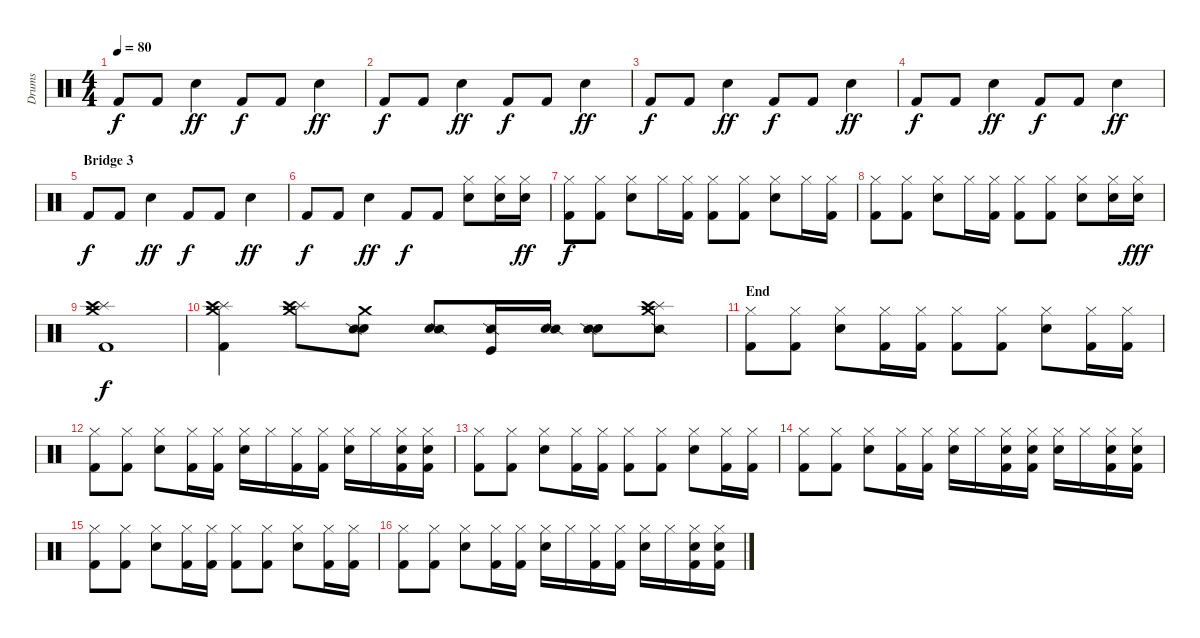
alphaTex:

\track ("Drums" "Drums") {instrument percussion}
\staff {score}
\articulation defaults
\ts (4 4)
\tempo 80
\clef neutral
\ks c "Kick (hit) 2".8{dy f} "Kick (hit) 2".8 "Electric Snare (hit)".4{dy ff} "Kick (hit) 2".8{dy f} "Kick (hit) 2".8 "Electric Snare (hit)".4{dy ff}
|
"Kick (hit) 2".8{dy f} "Kick (hit) 2".8 "Electric Snare (hit)".4{dy ff} "Kick (hit) 2".8{dy f} "Kick (hit) 2".8 "Electric Snare (hit)".4{dy ff} |
"Kick (hit) 2".8{dy f} "Kick (hit) 2".8 "Electric Snare (hit)".4{dy ff} "Kick (hit) 2".8{dy f} "Kick (hit) 2".8 "Electric Snare (hit)".4{dy ff} |
"Kick (hit) 2".8{dy f} "Kick (hit) 2".8 "Electric Snare (hit)".4{dy ff} "Kick (hit) 2".8{dy f} "Kick (hit) 2".8 "Electric Snare (hit)".4{dy ff} |
\section ("" "Bridge 3")
"Kick (hit) 2".8{dy f} "Kick (hit) 2".8 "Electric Snare (hit)".4{dy ff} "Kick (hit) 2".8{dy f} "Kick (hit) 2".8 "Electric Snare (hit)".4{dy ff} |
"Kick (hit) 2".8{dy f} "Kick (hit) 2".8 "Electric Snare (hit)".4{dy ff} "Kick (hit) 2".8{dy f} "Kick (hit) 2".8 ("Hi-Hat (closed)" "Electric Snare (hit)").8 ("Hi-Hat (closed)" "Electric Snare (hit)").16 ("Hi-Hat (closed)" "Electric Snare (hit)").16{dy ff} |
("Hi-Hat (closed)" "Kick (hit) 2").8{dy f} ("Hi-Hat (closed)" "Kick (hit) 2").8 ("Hi-Hat (closed)" "Electric Snare (hit)").8 "Hi-Hat (closed)".16 ("Hi-Hat (closed)" "Kick (hit) 2").16 ("Hi-Hat (closed)" "Kick (hit) 2").8 ("Hi-Hat (closed)" "Kick (hit) 2").8 ("Hi-Hat (closed)" "Electric Snare (hit)").8 "Hi-Hat (closed)".16 ("Hi-Hat (closed)" "Kick (hit) 2").16 |
("Hi-Hat (closed)" "Kick (hit) 2").8 ("Hi-Hat (closed)" "Kick (hit) 2").8 ("Hi-Hat (closed)" "Electric Snare (hit)").8 "Hi-Hat (closed)".16 ("Hi-Hat (closed)" "Kick (hit) 2").16 ("Hi-Hat (closed)" "Kick (hit) 2").8 ("Hi-Hat (closed)" "Kick (hit) 2").8 ("Hi-Hat (closed)" "Electric Snare (hit)").8 ("Hi-Hat (closed)" "Electric Snare (hit)").16 ("Hi-Hat (closed)" "Electric Snare (hit)").16{dy fff} |
("Crash medium (hit)" "Splash (hit)" "Crash high (hit)" "Kick (hit) 2").1{dy f} |
("Crash medium (hit)" "Splash (hit)" "Crash high (hit)" "Kick (hit) 2").4 ("Crash medium (hit)" "Splash (hit)" "Crash high (hit)").8 ("Crash medium (hit)" "Metronome (bell)" "Snare (side stick) 2").8 ("Metronome (bell)" "Snare (side stick) 2").8 ("Kick (hit)" "Snare (side stick) 2").16 ("Metronome (bell)" "Snare (side stick) 2").16 ("Metronome (bell)" "Snare (side stick) 2").8 ("Crash medium (hit)" "Splash (hit)" "Crash high (hit)" "Snare (side stick) 2").8 |
\section ("" "End")
("Hi-Hat (closed)" "Kick (hit) 2").8 ("Hi-Hat (closed)" "Kick (hit) 2").8 ("Hi-Hat (closed)" "Electric Snare (hit)").8 ("Hi-Hat (closed)" "Kick (hit) 2").16 ("Hi-Hat (closed)" "Kick (hit) 2").16 ("Hi-Hat (closed)" "Kick (hit) 2").8 ("Hi-Hat (closed)" "Kick (hit) 2").8 ("Hi-Hat (closed)" "Electric Snare (hit)").8 ("Hi-Hat (closed)" "Kick (hit) 2").16 ("Hi-Hat (closed)" "Kick (hit) 2").16 |
("Hi-Hat (closed)" "Kick (hit) 2").8 ("Hi-Hat (closed)" "Kick (hit) 2").8 ("Hi-Hat (closed)" "Electric Snare (hit)").8 ("Hi-Hat (closed)" "Kick (hit) 2").16 ("Hi-Hat (closed)" "Kick (hit) 2").16 ("Hi-Hat (closed)" "Electric Snare (hit)").16 "Hi-Hat (closed)".16 ("Hi-Hat (closed)" "Kick (hit) 2").16 ("Hi-Hat (closed)" "Kick (hit) 2").16 ("Hi-Hat (closed)" "Electric Snare (hit)").16 "Hi-Hat (closed)".16 ("Hi-Hat (closed)" "Electric Snare (hit)" "Kick (hit) 2").16 ("Hi-Hat (closed)" "Electric Snare (hit)" "Kick (hit) 2").16 |
("Hi-Hat (closed)" "Kick (hit) 2").8 ("Hi-Hat (closed)" "Kick (hit) 2").8 ("Hi-Hat (closed)" "Electric Snare (hit)").8 ("Hi-Hat (closed)" "Kick (hit) 2").16 ("Hi-Hat (closed)" "Kick (hit) 2").16 ("Hi-Hat (closed)" "Kick (hit) 2").8 ("Hi-Hat (closed)" "Kick (hit) 2").8 ("Hi-Hat (closed)" "Electric Snare (hit)").8 ("Hi-Hat (closed)" "Kick (hit) 2").16 ("Hi-Hat (closed)" "Kick (hit) 2").16 |
("Hi-Hat (closed)" "Kick (hit) 2").8 ("Hi-Hat (closed)" "Kick (hit) 2").8 ("Hi-Hat (closed)" "Electric Snare (hit)").8 ("Hi-Hat (closed)" "Kick (hit) 2").16 ("Hi-Hat (closed)" "Kick (hit) 2").16 ("Hi-Hat (closed)" "Electric Snare (hit)").16 "Hi-Hat (closed)".16 ("Hi-Hat (closed)" "Electric Snare (hit)" "Kick (hit) 2").16 ("Hi-Hat (closed)" "Electric Snare (hit)" "Kick (hit) 2").16 ("Hi-Hat (closed)" "Electric Snare (hit)").16 "Hi-Hat (closed)".16 ("Hi-Hat (closed)" "Electric Snare (hit)" "Kick (hit) 2").16 ("Hi-Hat (closed)" "Electric Snare (hit)" "Kick (hit) 2").16 |
("Hi-Hat (closed)" "Kick (hit) 2").8 ("Hi-Hat (closed)" "Kick (hit) 2").8 ("Hi-Hat (closed)" "Electric Snare (hit)").8 ("Hi-Hat (closed)" "Kick (hit) 2").16 ("Hi-Hat (closed)" "Kick (hit) 2").16 ("Hi-Hat (closed)" "Kick (hit) 2").8 ("Hi-Hat (closed)" "Kick (hit) 2").8 ("Hi-Hat (closed)" "Electric Snare (hit)").8 ("Hi-Hat (closed)" "Kick (hit) 2").16 ("Hi-Hat (closed)" "Kick (hit) 2").16 |
("Hi-Hat (closed)" "Kick (hit) 2").8 ("Hi-Hat (closed)" "Kick (hit) 2").8 ("Hi-Hat (closed)" "Electric Snare (hit)").8 ("Hi-Hat (closed)" "Kick (hit) 2").16 ("Hi-Hat (closed)" "Kick (hit) 2").16 ("Hi-Hat (closed)" "Electric Snare (hit)").16 "Hi-Hat (closed)".16 ("Hi-Hat (closed)" "Kick (hit) 2").16 ("Hi-Hat (closed)" "Kick (hit) 2").16 ("Hi-Hat (closed)" "Electric Snare (hit)").16 "Hi-Hat (closed)".16 ("Hi-Hat (closed)" "Electric Snare (hit)" "Kick (hit) 2").16 ("Hi-Hat (closed)" "Electric Snare (hit)" "Kick (hit) 2").16
